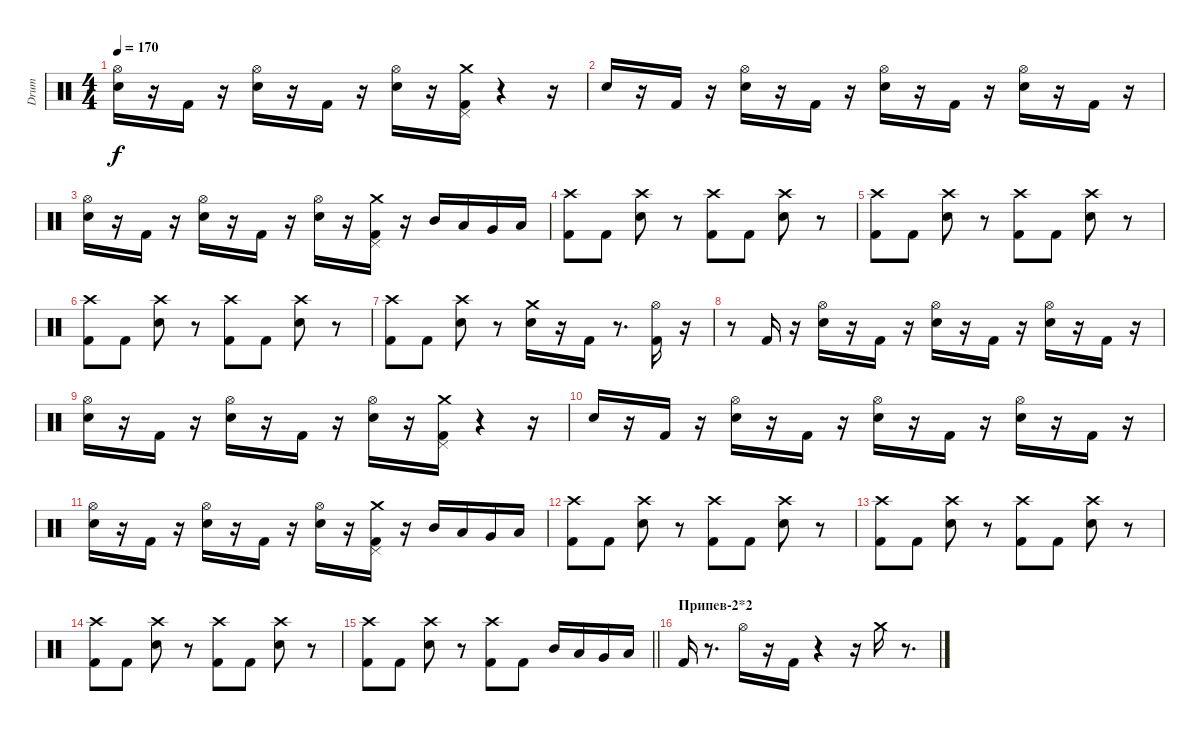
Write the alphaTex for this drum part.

\track ("Drum" "Drum") {instrument percussion}
\staff {score}
\articulation defaults
\ts (4 4)
\tempo 170
\clef neutral
\ks c
("Hi-Hat (open)" "Snare (hit) 2").16{dy f} r.16 "Kick (hit) 2".16 r.16 ("Hi-Hat (open)" "Snare (hit) 2").16 r.16 "Kick (hit) 2".16 r.16 ("Snare (hit) 2" "Hi-Hat (open)").16 r.16 ("Crash medium (hit)" "Pedal Hi-Hat (hit)" "Kick (hit) 2").16 r.4 r.16 |
"Snare (hit) 2".16 r.16 "Kick (hit) 2".16 r.16 ("Hi-Hat (open)" "Snare (hit) 2").16 r.16 "Kick (hit) 2".16 r.16 ("Hi-Hat (open)" "Snare (hit) 2").16 r.16 "Kick (hit) 2".16 r.16 ("Hi-Hat (open)" "Snare (hit) 2").16 r.16 "Kick (hit) 2".16 r.16 |
("Hi-Hat (open)" "Snare (hit) 2").16 r.16 "Kick (hit) 2".16 r.16 ("Hi-Hat (open)" "Snare (hit) 2").16 r.16 "Kick (hit) 2".16 r.16 ("Hi-Hat (open)" "Snare (hit) 2").16 r.16 ("Crash medium (hit)" "Pedal Hi-Hat (hit)" "Kick (hit) 2").16 r.16 "Mid Tom (hit)".16 "Low Tom (hit)".16 "Very Low Tom (hit)".16 "Low Floor Tom (hit)".16 |
("Crash high (hit)" "Kick (hit) 2").8 "Kick (hit) 2".8 ("Crash high (hit)" "Snare (hit) 2").8 r.8 ("Crash high (hit)" "Kick (hit) 2").8 "Kick (hit) 2".8 ("Crash high (hit)" "Snare (hit) 2").8 r.8 |
("Crash high (hit)" "Kick (hit) 2").8 "Kick (hit) 2".8 ("Crash high (hit)" "Snare (hit) 2").8 r.8 ("Crash high (hit)" "Kick (hit) 2").8 "Kick (hit) 2".8 ("Crash high (hit)" "Snare (hit) 2").8 r.8 |
("Crash high (hit)" "Kick (hit) 2").8 "Kick (hit) 2".8 ("Crash high (hit)" "Snare (hit) 2").8 r.8 ("Crash high (hit)" "Kick (hit) 2").8 "Kick (hit) 2".8 ("Crash high (hit)" "Snare (hit) 2").8 r.8 |
("Crash high (hit)" "Kick (hit) 2").8 "Kick (hit) 2".8 ("Crash high (hit)" "Snare (hit) 2").8 r.8 ("Crash medium (hit)" "Electric Snare (hit)").16 r.16 "Kick (hit) 2".16 r.8{d} ("Hi-Hat (open)" "Kick (hit) 2").16 r.16 |
r.8 "Kick (hit) 2".16 r.16 ("Snare (hit) 2" "Hi-Hat (open)").16 r.16 "Kick (hit) 2".16 r.16 ("Hi-Hat (open)" "Snare (hit) 2").16 r.16 "Kick (hit) 2".16 r.16 ("Snare (hit) 2" "Hi-Hat (open)").16 r.16 "Kick (hit) 2".16 r.16 |
("Hi-Hat (open)" "Snare (hit) 2").16 r.16 "Kick (hit) 2".16 r.16 ("Hi-Hat (open)" "Snare (hit) 2").16 r.16 "Kick (hit) 2".16 r.16 ("Snare (hit) 2" "Hi-Hat (open)").16 r.16 ("Crash medium (hit)" "Pedal Hi-Hat (hit)" "Kick (hit) 2").16 r.4 r.16 |
"Snare (hit) 2".16 r.16 "Kick (hit) 2".16 r.16 ("Hi-Hat (open)" "Snare (hit) 2").16 r.16 "Kick (hit) 2".16 r.16 ("Hi-Hat (open)" "Snare (hit) 2").16 r.16 "Kick (hit) 2".16 r.16 ("Hi-Hat (open)" "Snare (hit) 2").16 r.16 "Kick (hit) 2".16 r.16 |
("Hi-Hat (open)" "Snare (hit) 2").16 r.16 "Kick (hit) 2".16 r.16 ("Hi-Hat (open)" "Snare (hit) 2").16 r.16 "Kick (hit) 2".16 r.16 ("Hi-Hat (open)" "Snare (hit) 2").16 r.16 ("Crash medium (hit)" "Pedal Hi-Hat (hit)" "Kick (hit) 2").16 r.16 "Mid Tom (hit)".16 "Low Tom (hit)".16 "Very Low Tom (hit)".16 "Low Floor Tom (hit)".16 |
("Crash high (hit)" "Kick (hit) 2").8 "Kick (hit) 2".8 ("Crash high (hit)" "Snare (hit) 2").8 r.8 ("Crash high (hit)" "Kick (hit) 2").8 "Kick (hit) 2".8 ("Crash high (hit)" "Snare (hit) 2").8 r.8 |
("Crash high (hit)" "Kick (hit) 2").8 "Kick (hit) 2".8 ("Crash high (hit)" "Snare (hit) 2").8 r.8 ("Crash high (hit)" "Kick (hit) 2").8 "Kick (hit) 2".8 ("Crash high (hit)" "Snare (hit) 2").8 r.8 |
("Crash high (hit)" "Kick (hit) 2").8 "Kick (hit) 2".8 ("Crash high (hit)" "Snare (hit) 2").8 r.8 ("Crash high (hit)" "Kick (hit) 2").8 "Kick (hit) 2".8 ("Crash high (hit)" "Snare (hit) 2").8 r.8 |
\barLineRight lightlight
("Crash high (hit)" "Kick (hit) 2").8 "Kick (hit) 2".8 ("Crash high (hit)" "Snare (hit) 2").8 r.8 ("Crash high (hit)" "Kick (hit) 2").8 "Kick (hit) 2".8 "Mid Tom (hit)".16 "Low Tom (hit)".16 "Very Low Tom (hit)".16 "Low Floor Tom (hit)".16 |
\section ("" "Припев-2*2")
"Kick (hit) 2".16 r.8{d} "Hi-Hat (open)".16 r.16 "Kick (hit) 2".16 r.4 r.16 "Crash medium (hit)".16 r.8{d}
